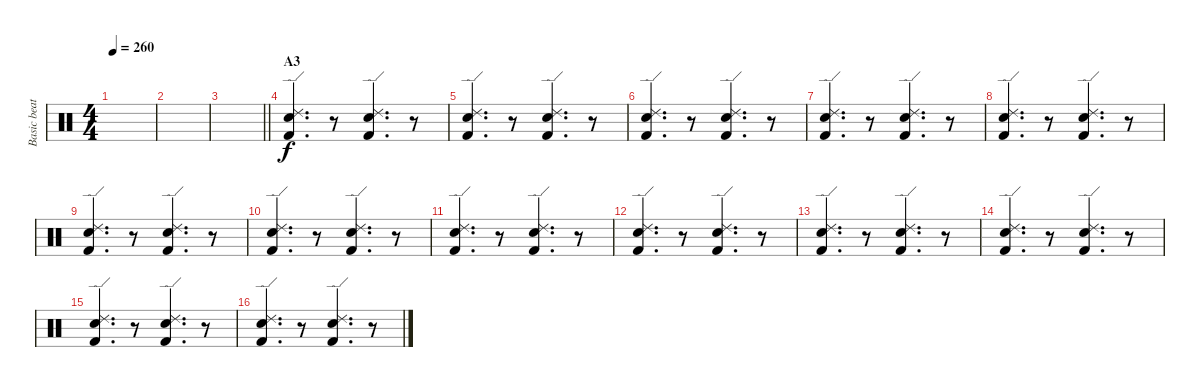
\track ("Basic beat" "Basic beat") {instrument percussion}
\staff {score}
\articulation defaults
\ts (4 4)
\tempo 260
\clef neutral
\ks c
|
|
\barLineRight lightlight
|
\section ("" "A3")
("Ride (edge) 2" "Electric Snare (hit)" "Kick (hit) 2").4{d} r.8 ("Ride (edge) 2" "Electric Snare (hit)" "Kick (hit) 2").4{d} r.8 |
("Ride (edge) 2" "Electric Snare (hit)" "Kick (hit) 2").4{d} r.8 ("Ride (edge) 2" "Electric Snare (hit)" "Kick (hit) 2").4{d} r.8 |
("Ride (edge) 2" "Electric Snare (hit)" "Kick (hit) 2").4{d} r.8 ("Ride (edge) 2" "Electric Snare (hit)" "Kick (hit) 2").4{d} r.8 |
("Ride (edge) 2" "Electric Snare (hit)" "Kick (hit) 2").4{d} r.8 ("Ride (edge) 2" "Electric Snare (hit)" "Kick (hit) 2").4{d} r.8 |
("Ride (edge) 2" "Electric Snare (hit)" "Kick (hit) 2").4{d} r.8 ("Ride (edge) 2" "Electric Snare (hit)" "Kick (hit) 2").4{d} r.8 |
("Ride (edge) 2" "Electric Snare (hit)" "Kick (hit) 2").4{d} r.8 ("Ride (edge) 2" "Electric Snare (hit)" "Kick (hit) 2").4{d} r.8 |
("Ride (edge) 2" "Electric Snare (hit)" "Kick (hit) 2").4{d} r.8 ("Ride (edge) 2" "Electric Snare (hit)" "Kick (hit) 2").4{d} r.8 |
("Ride (edge) 2" "Electric Snare (hit)" "Kick (hit) 2").4{d} r.8 ("Ride (edge) 2" "Electric Snare (hit)" "Kick (hit) 2").4{d} r.8 |
("Ride (edge) 2" "Electric Snare (hit)" "Kick (hit) 2").4{d} r.8 ("Ride (edge) 2" "Electric Snare (hit)" "Kick (hit) 2").4{d} r.8 |
("Ride (edge) 2" "Electric Snare (hit)" "Kick (hit) 2").4{d} r.8 ("Ride (edge) 2" "Electric Snare (hit)" "Kick (hit) 2").4{d} r.8 |
("Ride (edge) 2" "Electric Snare (hit)" "Kick (hit) 2").4{d} r.8 ("Ride (edge) 2" "Electric Snare (hit)" "Kick (hit) 2").4{d} r.8 |
("Ride (edge) 2" "Electric Snare (hit)" "Kick (hit) 2").4{d} r.8 ("Ride (edge) 2" "Electric Snare (hit)" "Kick (hit) 2").4{d} r.8 |
("Ride (edge) 2" "Electric Snare (hit)" "Kick (hit) 2").4{d} r.8 ("Ride (edge) 2" "Electric Snare (hit)" "Kick (hit) 2").4{d} r.8
